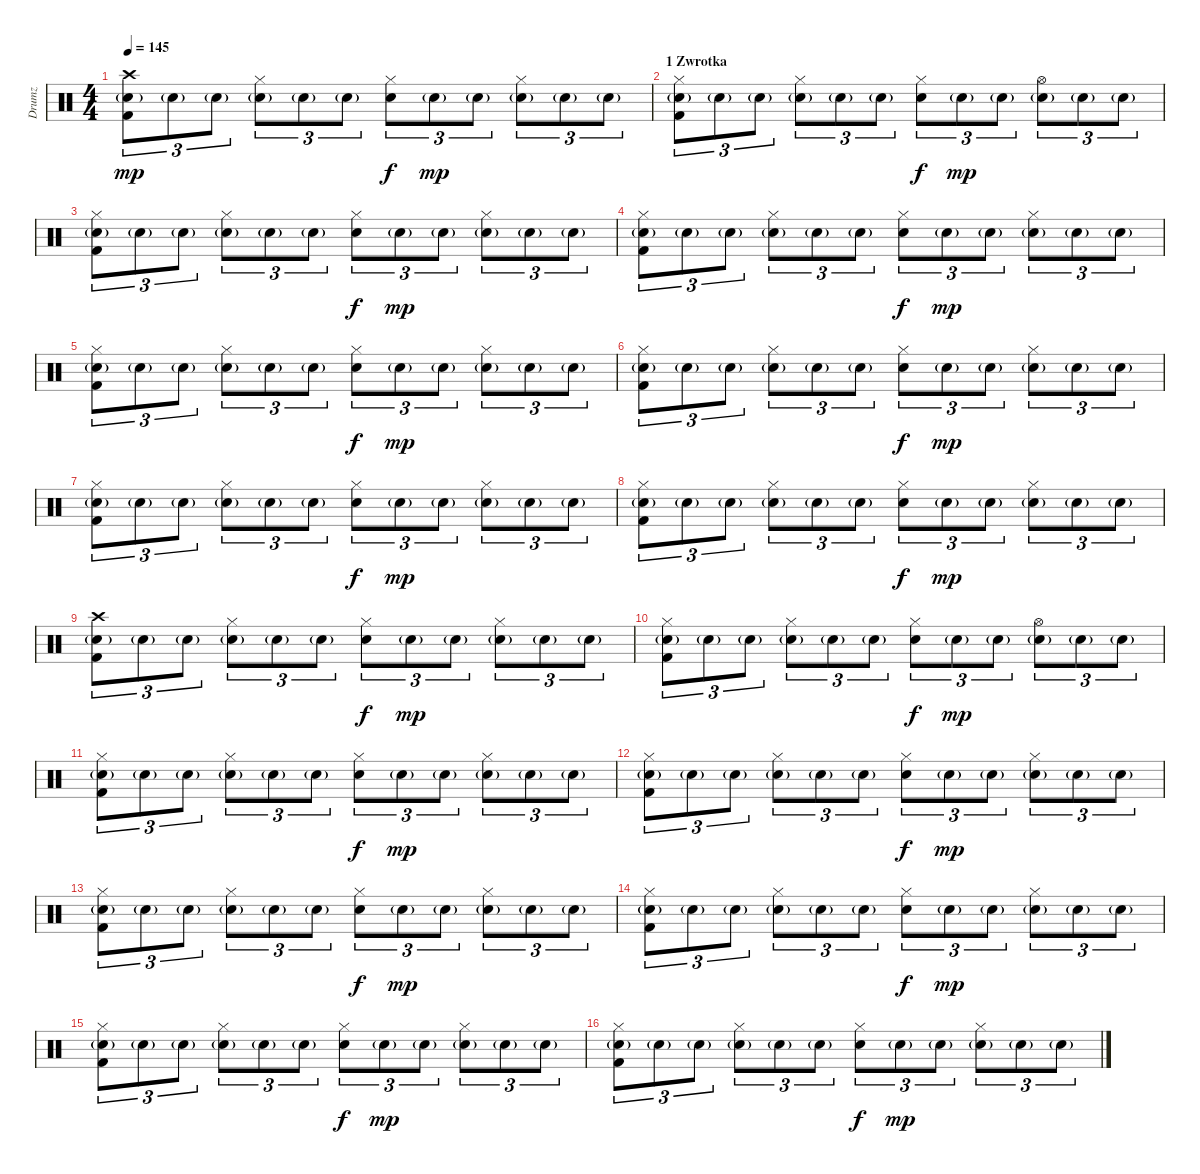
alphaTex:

\track ("Drumz" "Drumz") {instrument percussion}
\staff {score}
\articulation defaults
\ts (4 4)
\tempo 145
\clef neutral
\ks c
("Crash high (hit)" "Electric Snare (hit)"{g} "Kick (hit) 2").8{tu (3 2) dy mp} "Electric Snare (hit)"{g}.8{tu (3 2)} "Electric Snare (hit)"{g}.8{tu (3 2)} ("Hi-Hat (closed)" "Electric Snare (hit)"{g}).8{tu (3 2)} "Electric Snare (hit)"{g}.8{tu (3 2)} "Electric Snare (hit)"{g}.8{tu (3 2)} ("Hi-Hat (closed)" "Electric Snare (hit)").8{tu (3 2) dy f} "Electric Snare (hit)"{g}.8{tu (3 2) dy mp} "Electric Snare (hit)"{g}.8{tu (3 2)} ("Hi-Hat (closed)" "Electric Snare (hit)"{g}).8{tu (3 2)} "Electric Snare (hit)"{g}.8{tu (3 2)} "Electric Snare (hit)"{g}.8{tu (3 2)} |
\section ("" "1 Zwrotka")
("Hi-Hat (closed)" "Electric Snare (hit)"{g} "Kick (hit) 2").8{tu (3 2)} "Electric Snare (hit)"{g}.8{tu (3 2)} "Electric Snare (hit)"{g}.8{tu (3 2)} ("Hi-Hat (closed)" "Electric Snare (hit)"{g}).8{tu (3 2)} "Electric Snare (hit)"{g}.8{tu (3 2)} "Electric Snare (hit)"{g}.8{tu (3 2)} ("Hi-Hat (closed)" "Electric Snare (hit)").8{tu (3 2) dy f} "Electric Snare (hit)"{g}.8{tu (3 2) dy mp} "Electric Snare (hit)"{g}.8{tu (3 2)} ("Hi-Hat (open)" "Electric Snare (hit)"{g}).8{tu (3 2)} "Electric Snare (hit)"{g}.8{tu (3 2)} "Electric Snare (hit)"{g}.8{tu (3 2)} |
("Hi-Hat (closed)" "Electric Snare (hit)"{g} "Kick (hit) 2").8{tu (3 2)} "Electric Snare (hit)"{g}.8{tu (3 2)} "Electric Snare (hit)"{g}.8{tu (3 2)} ("Hi-Hat (closed)" "Electric Snare (hit)"{g}).8{tu (3 2)} "Electric Snare (hit)"{g}.8{tu (3 2)} "Electric Snare (hit)"{g}.8{tu (3 2)} ("Hi-Hat (closed)" "Electric Snare (hit)").8{tu (3 2) dy f} "Electric Snare (hit)"{g}.8{tu (3 2) dy mp} "Electric Snare (hit)"{g}.8{tu (3 2)} ("Hi-Hat (closed)" "Electric Snare (hit)"{g}).8{tu (3 2)} "Electric Snare (hit)"{g}.8{tu (3 2)} "Electric Snare (hit)"{g}.8{tu (3 2)} |
("Hi-Hat (closed)" "Electric Snare (hit)"{g} "Kick (hit) 2").8{tu (3 2)} "Electric Snare (hit)"{g}.8{tu (3 2)} "Electric Snare (hit)"{g}.8{tu (3 2)} ("Hi-Hat (closed)" "Electric Snare (hit)"{g}).8{tu (3 2)} "Electric Snare (hit)"{g}.8{tu (3 2)} "Electric Snare (hit)"{g}.8{tu (3 2)} ("Hi-Hat (closed)" "Electric Snare (hit)").8{tu (3 2) dy f} "Electric Snare (hit)"{g}.8{tu (3 2) dy mp} "Electric Snare (hit)"{g}.8{tu (3 2)} ("Hi-Hat (closed)" "Electric Snare (hit)"{g}).8{tu (3 2)} "Electric Snare (hit)"{g}.8{tu (3 2)} "Electric Snare (hit)"{g}.8{tu (3 2)} |
("Hi-Hat (closed)" "Electric Snare (hit)"{g} "Kick (hit) 2").8{tu (3 2)} "Electric Snare (hit)"{g}.8{tu (3 2)} "Electric Snare (hit)"{g}.8{tu (3 2)} ("Hi-Hat (closed)" "Electric Snare (hit)"{g}).8{tu (3 2)} "Electric Snare (hit)"{g}.8{tu (3 2)} "Electric Snare (hit)"{g}.8{tu (3 2)} ("Hi-Hat (closed)" "Electric Snare (hit)").8{tu (3 2) dy f} "Electric Snare (hit)"{g}.8{tu (3 2) dy mp} "Electric Snare (hit)"{g}.8{tu (3 2)} ("Hi-Hat (closed)" "Electric Snare (hit)"{g}).8{tu (3 2)} "Electric Snare (hit)"{g}.8{tu (3 2)} "Electric Snare (hit)"{g}.8{tu (3 2)} |
("Hi-Hat (closed)" "Electric Snare (hit)"{g} "Kick (hit) 2").8{tu (3 2)} "Electric Snare (hit)"{g}.8{tu (3 2)} "Electric Snare (hit)"{g}.8{tu (3 2)} ("Hi-Hat (closed)" "Electric Snare (hit)"{g}).8{tu (3 2)} "Electric Snare (hit)"{g}.8{tu (3 2)} "Electric Snare (hit)"{g}.8{tu (3 2)} ("Hi-Hat (closed)" "Electric Snare (hit)").8{tu (3 2) dy f} "Electric Snare (hit)"{g}.8{tu (3 2) dy mp} "Electric Snare (hit)"{g}.8{tu (3 2)} ("Hi-Hat (closed)" "Electric Snare (hit)"{g}).8{tu (3 2)} "Electric Snare (hit)"{g}.8{tu (3 2)} "Electric Snare (hit)"{g}.8{tu (3 2)} |
("Hi-Hat (closed)" "Electric Snare (hit)"{g} "Kick (hit) 2").8{tu (3 2)} "Electric Snare (hit)"{g}.8{tu (3 2)} "Electric Snare (hit)"{g}.8{tu (3 2)} ("Hi-Hat (closed)" "Electric Snare (hit)"{g}).8{tu (3 2)} "Electric Snare (hit)"{g}.8{tu (3 2)} "Electric Snare (hit)"{g}.8{tu (3 2)} ("Hi-Hat (closed)" "Electric Snare (hit)").8{tu (3 2) dy f} "Electric Snare (hit)"{g}.8{tu (3 2) dy mp} "Electric Snare (hit)"{g}.8{tu (3 2)} ("Hi-Hat (closed)" "Electric Snare (hit)"{g}).8{tu (3 2)} "Electric Snare (hit)"{g}.8{tu (3 2)} "Electric Snare (hit)"{g}.8{tu (3 2)} |
("Hi-Hat (closed)" "Electric Snare (hit)"{g} "Kick (hit) 2").8{tu (3 2)} "Electric Snare (hit)"{g}.8{tu (3 2)} "Electric Snare (hit)"{g}.8{tu (3 2)} ("Hi-Hat (closed)" "Electric Snare (hit)"{g}).8{tu (3 2)} "Electric Snare (hit)"{g}.8{tu (3 2)} "Electric Snare (hit)"{g}.8{tu (3 2)} ("Hi-Hat (closed)" "Electric Snare (hit)").8{tu (3 2) dy f} "Electric Snare (hit)"{g}.8{tu (3 2) dy mp} "Electric Snare (hit)"{g}.8{tu (3 2)} ("Hi-Hat (closed)" "Electric Snare (hit)"{g}).8{tu (3 2)} "Electric Snare (hit)"{g}.8{tu (3 2)} "Electric Snare (hit)"{g}.8{tu (3 2)} |
("Crash high (hit)" "Electric Snare (hit)"{g} "Kick (hit) 2").8{tu (3 2)} "Electric Snare (hit)"{g}.8{tu (3 2)} "Electric Snare (hit)"{g}.8{tu (3 2)} ("Hi-Hat (closed)" "Electric Snare (hit)"{g}).8{tu (3 2)} "Electric Snare (hit)"{g}.8{tu (3 2)} "Electric Snare (hit)"{g}.8{tu (3 2)} ("Hi-Hat (closed)" "Electric Snare (hit)").8{tu (3 2) dy f} "Electric Snare (hit)"{g}.8{tu (3 2) dy mp} "Electric Snare (hit)"{g}.8{tu (3 2)} ("Hi-Hat (closed)" "Electric Snare (hit)"{g}).8{tu (3 2)} "Electric Snare (hit)"{g}.8{tu (3 2)} "Electric Snare (hit)"{g}.8{tu (3 2)} |
("Hi-Hat (closed)" "Electric Snare (hit)"{g} "Kick (hit) 2").8{tu (3 2)} "Electric Snare (hit)"{g}.8{tu (3 2)} "Electric Snare (hit)"{g}.8{tu (3 2)} ("Hi-Hat (closed)" "Electric Snare (hit)"{g}).8{tu (3 2)} "Electric Snare (hit)"{g}.8{tu (3 2)} "Electric Snare (hit)"{g}.8{tu (3 2)} ("Hi-Hat (closed)" "Electric Snare (hit)").8{tu (3 2) dy f} "Electric Snare (hit)"{g}.8{tu (3 2) dy mp} "Electric Snare (hit)"{g}.8{tu (3 2)} ("Hi-Hat (open)" "Electric Snare (hit)"{g}).8{tu (3 2)} "Electric Snare (hit)"{g}.8{tu (3 2)} "Electric Snare (hit)"{g}.8{tu (3 2)} |
("Hi-Hat (closed)" "Electric Snare (hit)"{g} "Kick (hit) 2").8{tu (3 2)} "Electric Snare (hit)"{g}.8{tu (3 2)} "Electric Snare (hit)"{g}.8{tu (3 2)} ("Hi-Hat (closed)" "Electric Snare (hit)"{g}).8{tu (3 2)} "Electric Snare (hit)"{g}.8{tu (3 2)} "Electric Snare (hit)"{g}.8{tu (3 2)} ("Hi-Hat (closed)" "Electric Snare (hit)").8{tu (3 2) dy f} "Electric Snare (hit)"{g}.8{tu (3 2) dy mp} "Electric Snare (hit)"{g}.8{tu (3 2)} ("Hi-Hat (closed)" "Electric Snare (hit)"{g}).8{tu (3 2)} "Electric Snare (hit)"{g}.8{tu (3 2)} "Electric Snare (hit)"{g}.8{tu (3 2)} |
("Hi-Hat (closed)" "Electric Snare (hit)"{g} "Kick (hit) 2").8{tu (3 2)} "Electric Snare (hit)"{g}.8{tu (3 2)} "Electric Snare (hit)"{g}.8{tu (3 2)} ("Hi-Hat (closed)" "Electric Snare (hit)"{g}).8{tu (3 2)} "Electric Snare (hit)"{g}.8{tu (3 2)} "Electric Snare (hit)"{g}.8{tu (3 2)} ("Hi-Hat (closed)" "Electric Snare (hit)").8{tu (3 2) dy f} "Electric Snare (hit)"{g}.8{tu (3 2) dy mp} "Electric Snare (hit)"{g}.8{tu (3 2)} ("Hi-Hat (closed)" "Electric Snare (hit)"{g}).8{tu (3 2)} "Electric Snare (hit)"{g}.8{tu (3 2)} "Electric Snare (hit)"{g}.8{tu (3 2)} |
("Hi-Hat (closed)" "Electric Snare (hit)"{g} "Kick (hit) 2").8{tu (3 2)} "Electric Snare (hit)"{g}.8{tu (3 2)} "Electric Snare (hit)"{g}.8{tu (3 2)} ("Hi-Hat (closed)" "Electric Snare (hit)"{g}).8{tu (3 2)} "Electric Snare (hit)"{g}.8{tu (3 2)} "Electric Snare (hit)"{g}.8{tu (3 2)} ("Hi-Hat (closed)" "Electric Snare (hit)").8{tu (3 2) dy f} "Electric Snare (hit)"{g}.8{tu (3 2) dy mp} "Electric Snare (hit)"{g}.8{tu (3 2)} ("Hi-Hat (closed)" "Electric Snare (hit)"{g}).8{tu (3 2)} "Electric Snare (hit)"{g}.8{tu (3 2)} "Electric Snare (hit)"{g}.8{tu (3 2)} |
("Hi-Hat (closed)" "Electric Snare (hit)"{g} "Kick (hit) 2").8{tu (3 2)} "Electric Snare (hit)"{g}.8{tu (3 2)} "Electric Snare (hit)"{g}.8{tu (3 2)} ("Hi-Hat (closed)" "Electric Snare (hit)"{g}).8{tu (3 2)} "Electric Snare (hit)"{g}.8{tu (3 2)} "Electric Snare (hit)"{g}.8{tu (3 2)} ("Hi-Hat (closed)" "Electric Snare (hit)").8{tu (3 2) dy f} "Electric Snare (hit)"{g}.8{tu (3 2) dy mp} "Electric Snare (hit)"{g}.8{tu (3 2)} ("Hi-Hat (closed)" "Electric Snare (hit)"{g}).8{tu (3 2)} "Electric Snare (hit)"{g}.8{tu (3 2)} "Electric Snare (hit)"{g}.8{tu (3 2)} |
("Hi-Hat (closed)" "Electric Snare (hit)"{g} "Kick (hit) 2").8{tu (3 2)} "Electric Snare (hit)"{g}.8{tu (3 2)} "Electric Snare (hit)"{g}.8{tu (3 2)} ("Hi-Hat (closed)" "Electric Snare (hit)"{g}).8{tu (3 2)} "Electric Snare (hit)"{g}.8{tu (3 2)} "Electric Snare (hit)"{g}.8{tu (3 2)} ("Hi-Hat (closed)" "Electric Snare (hit)").8{tu (3 2) dy f} "Electric Snare (hit)"{g}.8{tu (3 2) dy mp} "Electric Snare (hit)"{g}.8{tu (3 2)} ("Hi-Hat (closed)" "Electric Snare (hit)"{g}).8{tu (3 2)} "Electric Snare (hit)"{g}.8{tu (3 2)} "Electric Snare (hit)"{g}.8{tu (3 2)} |
("Hi-Hat (closed)" "Electric Snare (hit)"{g} "Kick (hit) 2").8{tu (3 2)} "Electric Snare (hit)"{g}.8{tu (3 2)} "Electric Snare (hit)"{g}.8{tu (3 2)} ("Hi-Hat (closed)" "Electric Snare (hit)"{g}).8{tu (3 2)} "Electric Snare (hit)"{g}.8{tu (3 2)} "Electric Snare (hit)"{g}.8{tu (3 2)} ("Hi-Hat (closed)" "Electric Snare (hit)").8{tu (3 2) dy f} "Electric Snare (hit)"{g}.8{tu (3 2) dy mp} "Electric Snare (hit)"{g}.8{tu (3 2)} ("Hi-Hat (closed)" "Electric Snare (hit)"{g}).8{tu (3 2)} "Electric Snare (hit)"{g}.8{tu (3 2)} "Electric Snare (hit)"{g}.8{tu (3 2)}
